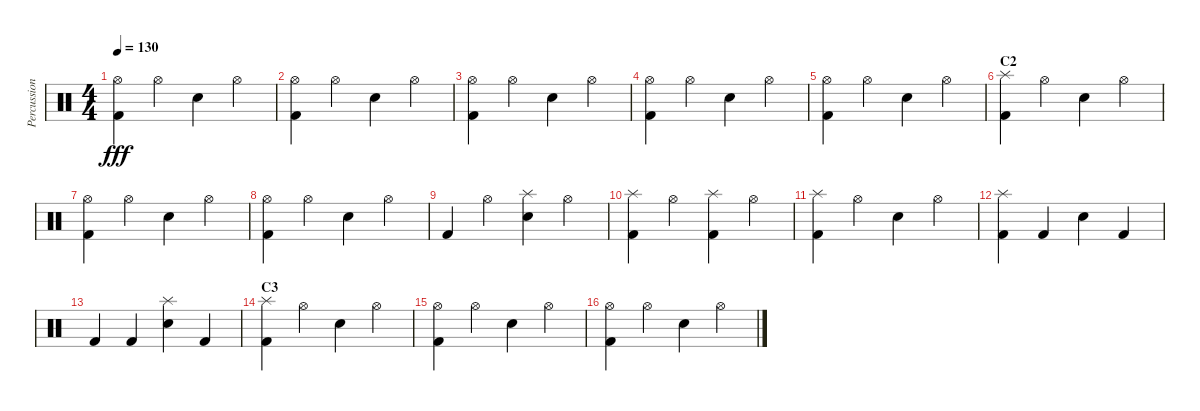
\track ("Percussion" "Percussion") {instrument percussion}
\staff {score}
\articulation defaults
\ts (4 4)
\tempo 130
\clef neutral
\ks c
("Kick (hit) 2" "Hi-Hat (open)").4{dy fff} "Hi-Hat (open)".4 "Electric Snare (hit)".4 "Hi-Hat (open)".4 |
("Kick (hit) 2" "Hi-Hat (open)").4 "Hi-Hat (open)".4 "Electric Snare (hit)".4 "Hi-Hat (open)".4 |
("Kick (hit) 2" "Hi-Hat (open)").4 "Hi-Hat (open)".4 "Electric Snare (hit)".4 "Hi-Hat (open)".4 |
("Kick (hit) 2" "Hi-Hat (open)").4 "Hi-Hat (open)".4 "Electric Snare (hit)".4 "Hi-Hat (open)".4 |
("Kick (hit) 2" "Hi-Hat (open)").4 "Hi-Hat (open)".4 "Electric Snare (hit)".4 "Hi-Hat (open)".4 |
\section ("" "C2")
("Kick (hit) 2" "Splash (hit)").4 "Hi-Hat (open)".4 "Electric Snare (hit)".4 "Hi-Hat (open)".4 |
("Kick (hit) 2" "Hi-Hat (open)").4 "Hi-Hat (open)".4 "Electric Snare (hit)".4 "Hi-Hat (open)".4 |
("Kick (hit) 2" "Hi-Hat (open)").4 "Hi-Hat (open)".4 "Electric Snare (hit)".4 "Hi-Hat (open)".4 |
"Kick (hit) 2".4 "Hi-Hat (open)".4 ("Splash (hit)" "Electric Snare (hit)").4 "Hi-Hat (open)".4 |
("Kick (hit) 2" "Splash (hit)").4 "Hi-Hat (open)".4 ("Kick (hit) 2" "Splash (hit)").4 "Hi-Hat (open)".4 |
("Kick (hit) 2" "Splash (hit)").4 "Hi-Hat (open)".4 "Electric Snare (hit)".4 "Hi-Hat (open)".4 |
("Kick (hit) 2" "Splash (hit)").4 "Kick (hit) 2".4 "Electric Snare (hit)".4 "Kick (hit) 2".4 |
"Kick (hit) 2".4 "Kick (hit) 2".4 ("Splash (hit)" "Electric Snare (hit)").4 "Kick (hit) 2".4 |
\section ("" "C3")
("Kick (hit) 2" "Splash (hit)").4 "Hi-Hat (open)".4 "Electric Snare (hit)".4 "Hi-Hat (open)".4 |
("Kick (hit) 2" "Hi-Hat (open)").4 "Hi-Hat (open)".4 "Electric Snare (hit)".4 "Hi-Hat (open)".4 |
("Kick (hit) 2" "Hi-Hat (open)").4 "Hi-Hat (open)".4 "Electric Snare (hit)".4 "Hi-Hat (open)".4
